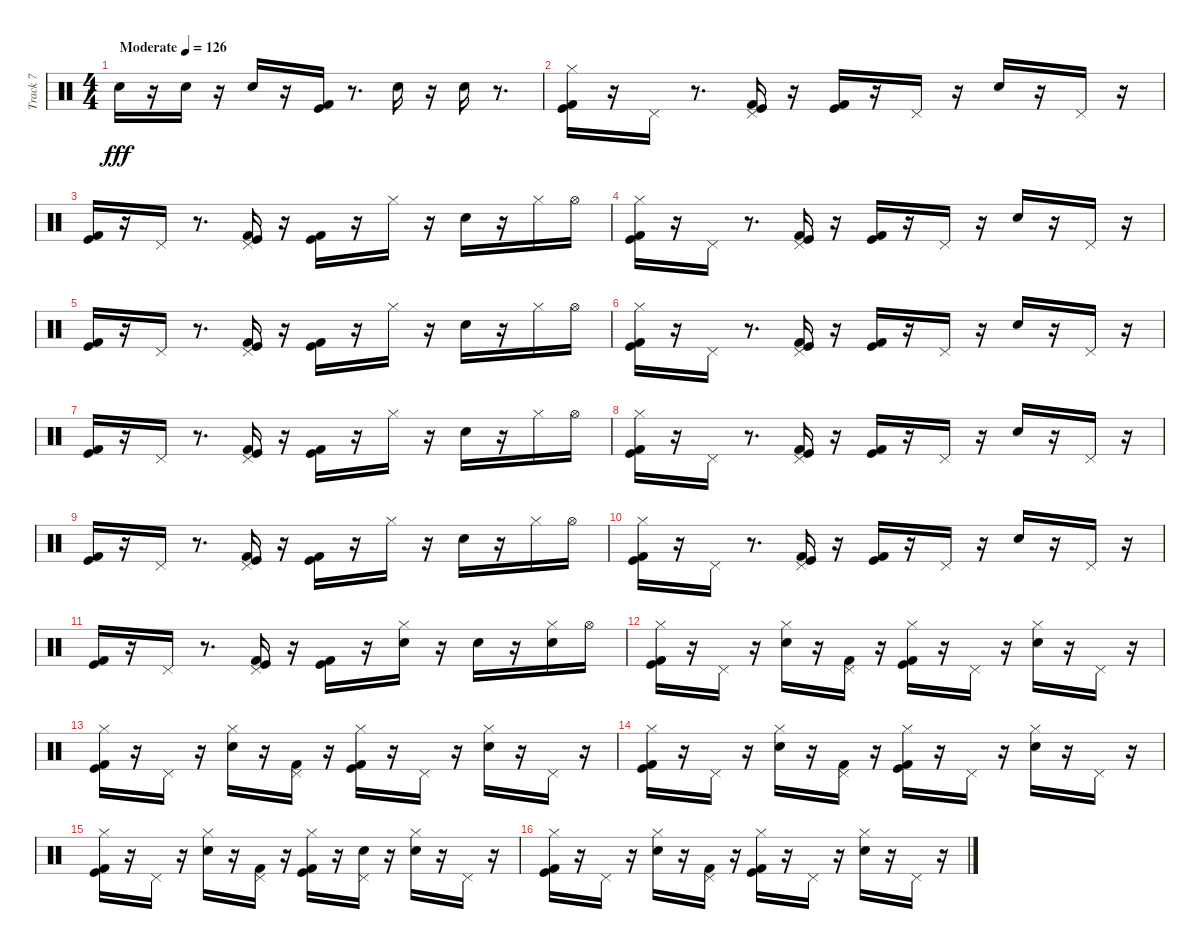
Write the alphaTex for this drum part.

\track ("Track 7" "Track 7") {instrument percussion}
\staff {score}
\articulation defaults
\ts (4 4)
\tempo (126 "Moderate")
\clef neutral
\ks c "Electric Snare (hit)".16{dy fff}
r.16 "Electric Snare (hit)".16 r.16 "Electric Snare (hit)".16 r.16 ("Kick (hit)" "Kick (hit) 2").16 r.8{d} "Electric Snare (hit)".16 r.16 "Electric Snare (hit)".16 r.8{d} |
("Hi-Hat (closed)" "Kick (hit)" "Kick (hit) 2").16 r.16 "Pedal Hi-Hat (hit)".16 r.8{d} ("Pedal Hi-Hat (hit)" "Kick (hit)" "Kick (hit) 2").16 r.16 ("Kick (hit)" "Kick (hit) 2").16 r.16 "Pedal Hi-Hat (hit)".16 r.16 "Electric Snare (hit)".16 r.16 "Pedal Hi-Hat (hit)".16 r.16 |
("Kick (hit)" "Kick (hit) 2").16 r.16 "Pedal Hi-Hat (hit)".16 r.8{d} ("Pedal Hi-Hat (hit)" "Kick (hit)" "Kick (hit) 2").16 r.16 ("Kick (hit)" "Kick (hit) 2").16 r.16 "Hi-Hat (closed)".16 r.16 "Electric Snare (hit)".16 r.16 "Hi-Hat (closed)".16 "Hi-Hat (open)".16 |
("Kick (hit) 2" "Hi-Hat (closed)" "Kick (hit)").16 r.16 "Pedal Hi-Hat (hit)".16 r.8{d} ("Kick (hit) 2" "Kick (hit)" "Pedal Hi-Hat (hit)").16 r.16 ("Kick (hit) 2" "Kick (hit)").16 r.16 "Pedal Hi-Hat (hit)".16 r.16 "Electric Snare (hit)".16 r.16 "Pedal Hi-Hat (hit)".16 r.16 |
("Kick (hit) 2" "Kick (hit)").16 r.16 "Pedal Hi-Hat (hit)".16 r.8{d} ("Kick (hit) 2" "Kick (hit)" "Pedal Hi-Hat (hit)").16 r.16 ("Kick (hit) 2" "Kick (hit)").16 r.16 "Hi-Hat (closed)".16 r.16 "Electric Snare (hit)".16 r.16 "Hi-Hat (closed)".16 "Hi-Hat (open)".16 |
("Kick (hit) 2" "Hi-Hat (closed)" "Kick (hit)").16 r.16 "Pedal Hi-Hat (hit)".16 r.8{d} ("Kick (hit) 2" "Kick (hit)" "Pedal Hi-Hat (hit)").16 r.16 ("Kick (hit) 2" "Kick (hit)").16 r.16 "Pedal Hi-Hat (hit)".16 r.16 "Electric Snare (hit)".16 r.16 "Pedal Hi-Hat (hit)".16 r.16 |
("Kick (hit) 2" "Kick (hit)").16 r.16 "Pedal Hi-Hat (hit)".16 r.8{d} ("Kick (hit) 2" "Kick (hit)" "Pedal Hi-Hat (hit)").16 r.16 ("Kick (hit) 2" "Kick (hit)").16 r.16 "Hi-Hat (closed)".16 r.16 "Electric Snare (hit)".16 r.16 "Hi-Hat (closed)".16 "Hi-Hat (open)".16 |
("Kick (hit) 2" "Hi-Hat (closed)" "Kick (hit)").16 r.16 "Pedal Hi-Hat (hit)".16 r.8{d} ("Kick (hit) 2" "Kick (hit)" "Pedal Hi-Hat (hit)").16 r.16 ("Kick (hit) 2" "Kick (hit)").16 r.16 "Pedal Hi-Hat (hit)".16 r.16 "Electric Snare (hit)".16 r.16 "Pedal Hi-Hat (hit)".16 r.16 |
("Kick (hit) 2" "Kick (hit)").16 r.16 "Pedal Hi-Hat (hit)".16 r.8{d} ("Kick (hit) 2" "Kick (hit)" "Pedal Hi-Hat (hit)").16 r.16 ("Kick (hit) 2" "Kick (hit)").16 r.16 "Hi-Hat (closed)".16 r.16 "Electric Snare (hit)".16 r.16 "Hi-Hat (closed)".16 "Hi-Hat (open)".16 |
("Kick (hit) 2" "Hi-Hat (closed)" "Kick (hit)").16 r.16 "Pedal Hi-Hat (hit)".16 r.8{d} ("Kick (hit) 2" "Kick (hit)" "Pedal Hi-Hat (hit)").16 r.16 ("Kick (hit) 2" "Kick (hit)").16 r.16 "Pedal Hi-Hat (hit)".16 r.16 "Electric Snare (hit)".16 r.16 "Pedal Hi-Hat (hit)".16 r.16 |
("Kick (hit) 2" "Kick (hit)").16 r.16 "Pedal Hi-Hat (hit)".16 r.8{d} ("Kick (hit) 2" "Kick (hit)" "Pedal Hi-Hat (hit)").16 r.16 ("Kick (hit) 2" "Kick (hit)").16 r.16 ("Electric Snare (hit)" "Hi-Hat (closed)").16 r.16 "Electric Snare (hit)".16 r.16 ("Electric Snare (hit)" "Hi-Hat (closed)").16 "Hi-Hat (open)".16 |
("Hi-Hat (closed)" "Kick (hit)" "Kick (hit) 2").16 r.16 "Pedal Hi-Hat (hit)".16 r.16 ("Hi-Hat (closed)" "Electric Snare (hit)").16 r.16 ("Pedal Hi-Hat (hit)" "Kick (hit) 2").16 r.16 ("Hi-Hat (closed)" "Kick (hit)" "Kick (hit) 2").16 r.16 "Pedal Hi-Hat (hit)".16 r.16 ("Hi-Hat (closed)" "Electric Snare (hit)").16 r.16 "Pedal Hi-Hat (hit)".16 r.16 |
("Kick (hit) 2" "Kick (hit)" "Hi-Hat (closed)").16 r.16 "Pedal Hi-Hat (hit)".16 r.16 ("Electric Snare (hit)" "Hi-Hat (closed)").16 r.16 ("Kick (hit) 2" "Pedal Hi-Hat (hit)").16 r.16 ("Kick (hit) 2" "Kick (hit)" "Hi-Hat (closed)").16 r.16 "Pedal Hi-Hat (hit)".16 r.16 ("Electric Snare (hit)" "Hi-Hat (closed)").16 r.16 "Pedal Hi-Hat (hit)".16 r.16 |
("Kick (hit) 2" "Kick (hit)" "Hi-Hat (closed)").16 r.16 "Pedal Hi-Hat (hit)".16 r.16 ("Electric Snare (hit)" "Hi-Hat (closed)").16 r.16 ("Kick (hit) 2" "Pedal Hi-Hat (hit)").16 r.16 ("Kick (hit) 2" "Kick (hit)" "Hi-Hat (closed)").16 r.16 "Pedal Hi-Hat (hit)".16 r.16 ("Electric Snare (hit)" "Hi-Hat (closed)").16 r.16 "Pedal Hi-Hat (hit)".16 r.16 |
("Hi-Hat (closed)" "Kick (hit)" "Kick (hit) 2").16 r.16 "Pedal Hi-Hat (hit)".16 r.16 ("Hi-Hat (closed)" "Electric Snare (hit)").16 r.16 ("Pedal Hi-Hat (hit)" "Kick (hit) 2").16 r.16 ("Hi-Hat (closed)" "Kick (hit)" "Kick (hit) 2").16 r.16 ("Electric Snare (hit)" "Pedal Hi-Hat (hit)").16 r.16 ("Hi-Hat (closed)" "Electric Snare (hit)").16 r.16 "Pedal Hi-Hat (hit)".16 r.16 |
("Kick (hit) 2" "Kick (hit)" "Hi-Hat (closed)").16 r.16 "Pedal Hi-Hat (hit)".16 r.16 ("Electric Snare (hit)" "Hi-Hat (closed)").16 r.16 ("Kick (hit) 2" "Pedal Hi-Hat (hit)").16 r.16 ("Kick (hit) 2" "Kick (hit)" "Hi-Hat (closed)").16 r.16 "Pedal Hi-Hat (hit)".16 r.16 ("Electric Snare (hit)" "Hi-Hat (closed)").16 r.16 "Pedal Hi-Hat (hit)".16 r.16
